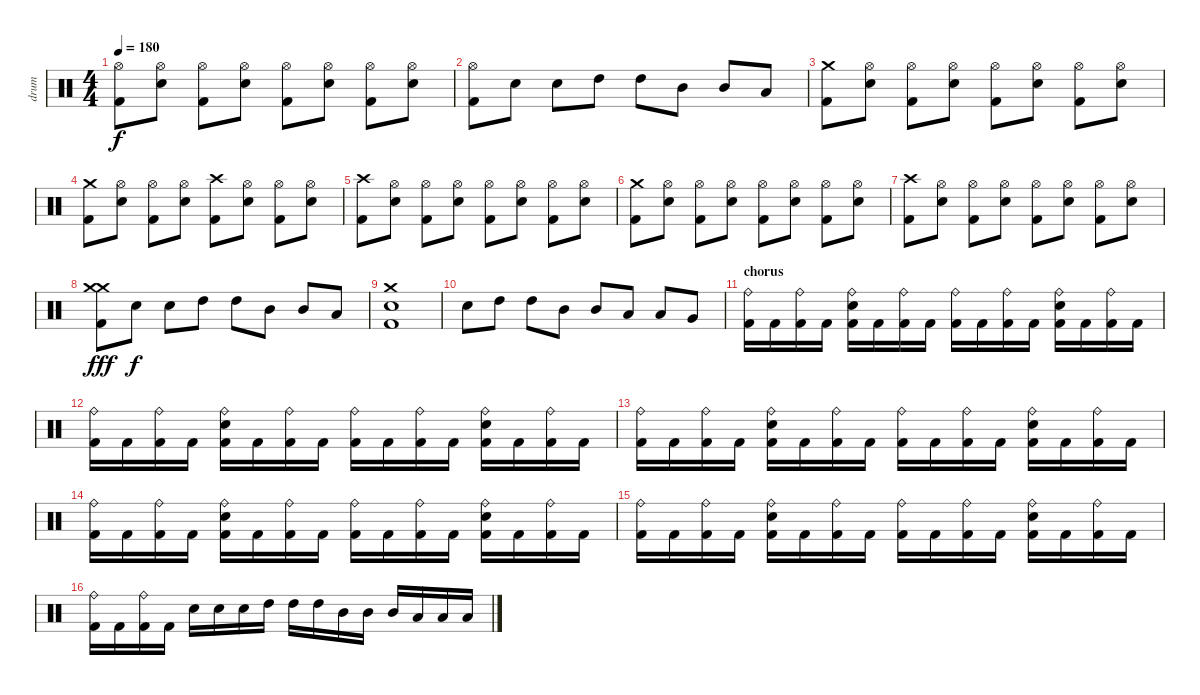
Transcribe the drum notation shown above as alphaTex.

\track ("drum" "drum") {instrument percussion}
\staff {score}
\articulation defaults
\ts (4 4)
\tempo 180
\clef neutral
\ks c
("Hi-Hat (open)" "Kick (hit) 2").8{dy f} ("Hi-Hat (open)" "Electric Snare (hit)").8 ("Hi-Hat (open)" "Kick (hit) 2").8 ("Hi-Hat (open)" "Electric Snare (hit)").8 ("Hi-Hat (open)" "Kick (hit) 2").8 ("Hi-Hat (open)" "Electric Snare (hit)").8 ("Hi-Hat (open)" "Kick (hit) 2").8 ("Hi-Hat (open)" "Electric Snare (hit)").8 |
("Hi-Hat (open)" "Kick (hit) 2").8 "Electric Snare (hit)".8 "Electric Snare (hit)".8 "High Tom (hit)".8 "High Tom (hit)".8 "Mid Tom (hit)".8 "Mid Tom (hit)".8 "Low Tom (hit)".8 |
("Crash medium (hit)" "Kick (hit) 2").8 ("Hi-Hat (open)" "Electric Snare (hit)").8 ("Hi-Hat (open)" "Kick (hit) 2").8 ("Hi-Hat (open)" "Electric Snare (hit)").8 ("Hi-Hat (open)" "Kick (hit) 2").8 ("Hi-Hat (open)" "Electric Snare (hit)").8 ("Hi-Hat (open)" "Kick (hit) 2").8 ("Hi-Hat (open)" "Electric Snare (hit)").8 |
("Crash medium (hit)" "Kick (hit) 2").8 ("Hi-Hat (open)" "Electric Snare (hit)").8 ("Hi-Hat (open)" "Kick (hit) 2").8 ("Hi-Hat (open)" "Electric Snare (hit)").8 ("Crash high (hit)" "Kick (hit) 2").8 ("Hi-Hat (open)" "Electric Snare (hit)").8 ("Hi-Hat (open)" "Kick (hit) 2").8 ("Hi-Hat (open)" "Electric Snare (hit)").8 |
("Crash high (hit)" "Kick (hit) 2").8 ("Hi-Hat (open)" "Electric Snare (hit)").8 ("Hi-Hat (open)" "Kick (hit) 2").8 ("Hi-Hat (open)" "Electric Snare (hit)").8 ("Hi-Hat (open)" "Kick (hit) 2").8 ("Hi-Hat (open)" "Electric Snare (hit)").8 ("Hi-Hat (open)" "Kick (hit) 2").8 ("Hi-Hat (open)" "Electric Snare (hit)").8 |
("Crash medium (hit)" "Kick (hit) 2").8 ("Hi-Hat (open)" "Electric Snare (hit)").8 ("Hi-Hat (open)" "Kick (hit) 2").8 ("Hi-Hat (open)" "Electric Snare (hit)").8 ("Hi-Hat (open)" "Kick (hit) 2").8 ("Hi-Hat (open)" "Electric Snare (hit)").8 ("Hi-Hat (open)" "Kick (hit) 2").8 ("Hi-Hat (open)" "Electric Snare (hit)").8 |
("Crash high (hit)" "Kick (hit) 2").8 ("Hi-Hat (open)" "Electric Snare (hit)").8 ("Hi-Hat (open)" "Kick (hit) 2").8 ("Hi-Hat (open)" "Electric Snare (hit)").8 ("Hi-Hat (open)" "Kick (hit) 2").8 ("Hi-Hat (open)" "Electric Snare (hit)").8 ("Hi-Hat (open)" "Kick (hit) 2").8 ("Hi-Hat (open)" "Electric Snare (hit)").8 |
("Crash medium (hit)" "Crash medium (hit)" "Kick (hit) 2").8{dy fff} "Electric Snare (hit)".8{dy f} "Electric Snare (hit)".8 "High Tom (hit)".8 "High Tom (hit)".8 "Mid Tom (hit)".8 "Mid Tom (hit)".8 "Low Tom (hit)".8 |
("Crash medium (hit)" "Electric Snare (hit)" "Kick (hit) 2").1 |
"Electric Snare (hit)".8 "High Tom (hit)".8 "High Tom (hit)".8 "Mid Tom (hit)".8 "Mid Tom (hit)".8 "Low Tom (hit)".8 "Low Tom (hit)".8 "Very Low Tom (hit)".8 |
\section ("" "chorus")
("Ride (bell)" "Kick (hit) 2").16 "Kick (hit) 2".16 ("Ride (bell)" "Kick (hit) 2").16 "Kick (hit) 2".16 ("Ride (bell)" "Electric Snare (hit)" "Kick (hit) 2").16 "Kick (hit) 2".16 ("Ride (bell)" "Kick (hit) 2").16 "Kick (hit) 2".16 ("Ride (bell)" "Kick (hit) 2").16 "Kick (hit) 2".16 ("Ride (bell)" "Kick (hit) 2").16 "Kick (hit) 2".16 ("Ride (bell)" "Electric Snare (hit)" "Kick (hit) 2").16 "Kick (hit) 2".16 ("Ride (bell)" "Kick (hit) 2").16 "Kick (hit) 2".16 |
("Ride (bell)" "Kick (hit) 2").16 "Kick (hit) 2".16 ("Ride (bell)" "Kick (hit) 2").16 "Kick (hit) 2".16 ("Ride (bell)" "Electric Snare (hit)" "Kick (hit) 2").16 "Kick (hit) 2".16 ("Ride (bell)" "Kick (hit) 2").16 "Kick (hit) 2".16 ("Ride (bell)" "Kick (hit) 2").16 "Kick (hit) 2".16 ("Ride (bell)" "Kick (hit) 2").16 "Kick (hit) 2".16 ("Ride (bell)" "Electric Snare (hit)" "Kick (hit) 2").16 "Kick (hit) 2".16 ("Ride (bell)" "Kick (hit) 2").16 "Kick (hit) 2".16 |
("Ride (bell)" "Kick (hit) 2").16 "Kick (hit) 2".16 ("Ride (bell)" "Kick (hit) 2").16 "Kick (hit) 2".16 ("Ride (bell)" "Electric Snare (hit)" "Kick (hit) 2").16 "Kick (hit) 2".16 ("Ride (bell)" "Kick (hit) 2").16 "Kick (hit) 2".16 ("Ride (bell)" "Kick (hit) 2").16 "Kick (hit) 2".16 ("Ride (bell)" "Kick (hit) 2").16 "Kick (hit) 2".16 ("Ride (bell)" "Electric Snare (hit)" "Kick (hit) 2").16 "Kick (hit) 2".16 ("Ride (bell)" "Kick (hit) 2").16 "Kick (hit) 2".16 |
("Ride (bell)" "Kick (hit) 2").16 "Kick (hit) 2".16 ("Ride (bell)" "Kick (hit) 2").16 "Kick (hit) 2".16 ("Ride (bell)" "Electric Snare (hit)" "Kick (hit) 2").16 "Kick (hit) 2".16 ("Ride (bell)" "Kick (hit) 2").16 "Kick (hit) 2".16 ("Ride (bell)" "Kick (hit) 2").16 "Kick (hit) 2".16 ("Ride (bell)" "Kick (hit) 2").16 "Kick (hit) 2".16 ("Ride (bell)" "Electric Snare (hit)" "Kick (hit) 2").16 "Kick (hit) 2".16 ("Ride (bell)" "Kick (hit) 2").16 "Kick (hit) 2".16 |
("Ride (bell)" "Kick (hit) 2").16 "Kick (hit) 2".16 ("Ride (bell)" "Kick (hit) 2").16 "Kick (hit) 2".16 ("Ride (bell)" "Electric Snare (hit)" "Kick (hit) 2").16 "Kick (hit) 2".16 ("Ride (bell)" "Kick (hit) 2").16 "Kick (hit) 2".16 ("Ride (bell)" "Kick (hit) 2").16 "Kick (hit) 2".16 ("Ride (bell)" "Kick (hit) 2").16 "Kick (hit) 2".16 ("Ride (bell)" "Electric Snare (hit)" "Kick (hit) 2").16 "Kick (hit) 2".16 ("Ride (bell)" "Kick (hit) 2").16 "Kick (hit) 2".16 |
("Ride (bell)" "Kick (hit) 2").16 "Kick (hit) 2".16 ("Ride (bell)" "Kick (hit) 2").16 "Kick (hit) 2".16 "Electric Snare (hit)".16 "Electric Snare (hit)".16 "Electric Snare (hit)".16 "High Tom (hit)".16 "High Tom (hit)".16 "High Tom (hit)".16 "Mid Tom (hit)".16 "Mid Tom (hit)".16 "Mid Tom (hit)".16 "Low Tom (hit)".16 "Low Tom (hit)".16 "Low Tom (hit)".16
